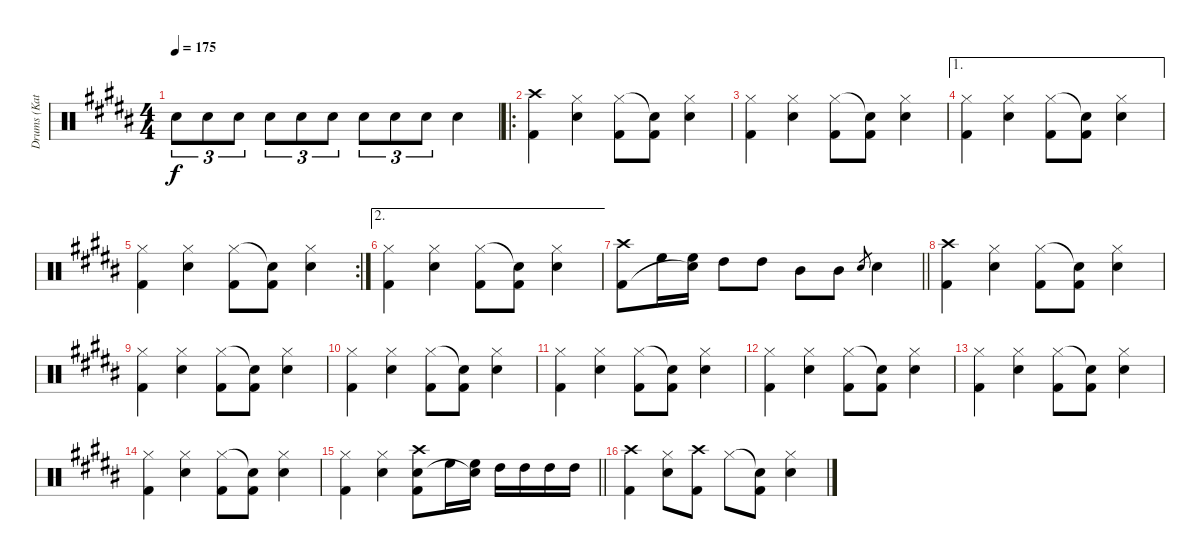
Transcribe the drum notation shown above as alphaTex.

\track ("Drums (Katsuji)" "Drums (Kat") {instrument percussion}
\staff {score}
\articulation defaults
\ts (4 4)
\tempo 175
\clef neutral
\ks b "Snare (hit) 2".8{tu (3 2) dy f} "Snare (hit) 2".8{tu (3 2)} "Snare (hit) 2".8{tu (3 2)} "Snare (hit) 2".8{tu (3 2)} "Snare (hit) 2".8{tu (3 2)} "Snare (hit) 2".8{tu (3 2)} "Snare (hit) 2".8{tu (3 2)} "Snare (hit) 2".8{tu (3 2)} "Snare (hit) 2".8{tu (3 2)} "Snare (hit) 2".4
|
\ro
("Crash high (hit)" "Kick (hit) 2").4 ("Hi-Hat (closed)" "Snare (hit) 2").4 ("Hi-Hat (closed)" "Kick (hit) 2").8 ("Snare (hit)"{t} "Kick (hit) 2").8 ("Hi-Hat (closed)" "Snare (hit) 2").4 |
("Hi-Hat (closed)" "Kick (hit) 2").4 ("Hi-Hat (closed)" "Snare (hit) 2").4 ("Hi-Hat (closed)" "Kick (hit) 2").8 ("Snare (hit)"{t} "Kick (hit) 2").8 ("Hi-Hat (closed)" "Snare (hit) 2").4 |
\ae 1
("Hi-Hat (closed)" "Kick (hit) 2").4 ("Hi-Hat (closed)" "Snare (hit) 2").4 ("Hi-Hat (closed)" "Kick (hit) 2").8 ("Snare (hit)"{t} "Kick (hit) 2").8 ("Hi-Hat (closed)" "Snare (hit) 2").4 |
\rc 2
("Hi-Hat (closed)" "Kick (hit) 2").4 ("Hi-Hat (closed)" "Snare (hit) 2").4 ("Hi-Hat (closed)" "Kick (hit) 2").8 ("Snare (hit)"{t} "Kick (hit) 2").8 ("Hi-Hat (closed)" "Snare (hit) 2").4 |
\ae 2
("Hi-Hat (closed)" "Kick (hit) 2").4 ("Hi-Hat (closed)" "Snare (hit) 2").4 ("Hi-Hat (closed)" "Kick (hit) 2").8 ("Snare (hit)"{t} "Kick (hit) 2").8 ("Hi-Hat (closed)" "Snare (hit) 2").4 |
\barLineRight lightlight
("Crash high (hit)" "Kick (hit) 2").8 "High Floor Tom (hit)".16 ("High Floor Tom (hit)" "Snare (hit)"{t}).16 "High Tom (hit)".8 "High Tom (hit)".8 "Mid Tom (hit)".8 "Mid Tom (hit)".8 "Snare (hit) 2".8{gr} "Snare (hit) 2".4 |
("Crash high (hit)" "Kick (hit) 2").4 ("Hi-Hat (closed)" "Snare (hit) 2").4 ("Hi-Hat (closed)" "Kick (hit) 2").8 ("Snare (hit)"{t} "Kick (hit) 2").8 ("Hi-Hat (closed)" "Snare (hit) 2").4 |
("Hi-Hat (closed)" "Kick (hit) 2").4 ("Hi-Hat (closed)" "Snare (hit) 2").4 ("Hi-Hat (closed)" "Kick (hit) 2").8 ("Snare (hit)"{t} "Kick (hit) 2").8 ("Hi-Hat (closed)" "Snare (hit) 2").4 |
("Hi-Hat (closed)" "Kick (hit) 2").4 ("Hi-Hat (closed)" "Snare (hit) 2").4 ("Hi-Hat (closed)" "Kick (hit) 2").8 ("Snare (hit)"{t} "Kick (hit) 2").8 ("Hi-Hat (closed)" "Snare (hit) 2").4 |
("Hi-Hat (closed)" "Kick (hit) 2").4 ("Hi-Hat (closed)" "Snare (hit) 2").4 ("Hi-Hat (closed)" "Kick (hit) 2").8 ("Snare (hit)"{t} "Kick (hit) 2").8 ("Hi-Hat (closed)" "Snare (hit) 2").4 |
("Hi-Hat (closed)" "Kick (hit) 2").4 ("Hi-Hat (closed)" "Snare (hit) 2").4 ("Hi-Hat (closed)" "Kick (hit) 2").8 ("Snare (hit)"{t} "Kick (hit) 2").8 ("Hi-Hat (closed)" "Snare (hit) 2").4 |
("Hi-Hat (closed)" "Kick (hit) 2").4 ("Hi-Hat (closed)" "Snare (hit) 2").4 ("Hi-Hat (closed)" "Kick (hit) 2").8 ("Snare (hit)"{t} "Kick (hit) 2").8 ("Hi-Hat (closed)" "Snare (hit) 2").4 |
("Hi-Hat (closed)" "Kick (hit) 2").4 ("Hi-Hat (closed)" "Snare (hit) 2").4 ("Hi-Hat (closed)" "Kick (hit) 2").8 ("Snare (hit)"{t} "Kick (hit) 2").8 ("Hi-Hat (closed)" "Snare (hit) 2").4 |
\barLineRight lightlight
("Hi-Hat (closed)" "Kick (hit) 2").4 ("Hi-Hat (closed)" "Snare (hit) 2").4 ("Crash high (hit)" "Snare (hit) 2" "Kick (hit) 2").8 "High Floor Tom (hit)".16 ("High Floor Tom (hit)" "Snare (hit)"{t}).16 "High Tom (hit)".16 "High Tom (hit)".16 "High Tom (hit)".16 "High Tom (hit)".16 |
("Crash high (hit)" "Kick (hit) 2").4 ("Hi-Hat (closed)" "Snare (hit) 2").8 ("Crash high (hit)" "Kick (hit) 2").8 "Hi-Hat (closed)".8 ("Snare (hit)"{t} "Kick (hit) 2").8 ("Hi-Hat (closed)" "Snare (hit) 2").4
